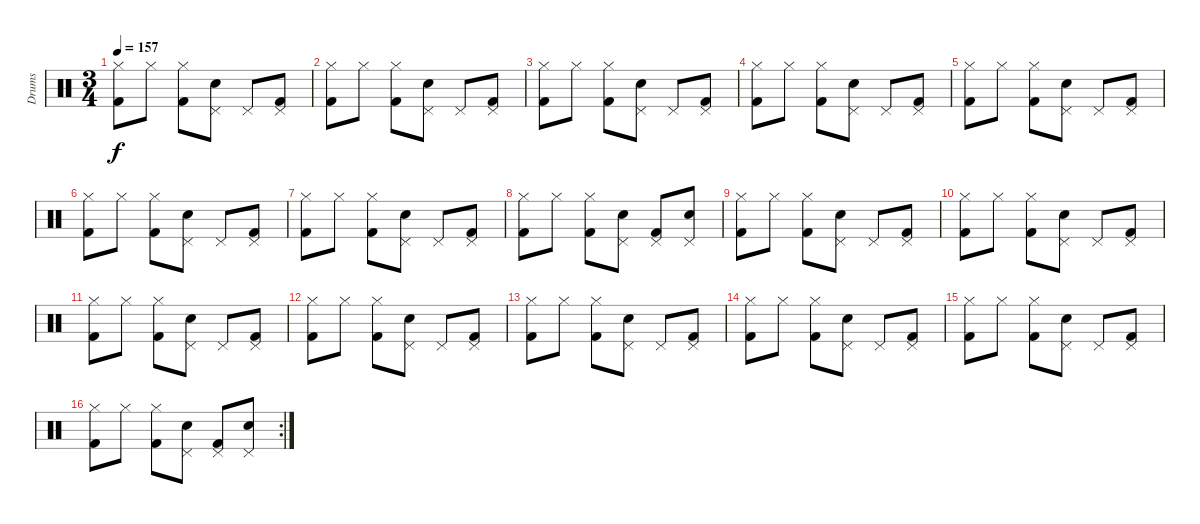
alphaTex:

\track ("Drums" "Drums") {instrument percussion}
\staff {score}
\articulation defaults
\ts (3 4)
\tempo 157
\clef neutral
\ks c
("Hi-Hat (closed)" "Kick (hit) 2").8{dy f} "Hi-Hat (closed)".8 ("Hi-Hat (closed)" "Kick (hit) 2").8 ("Pedal Hi-Hat (hit)" "Electric Snare (hit)").8 "Pedal Hi-Hat (hit)".8 ("Pedal Hi-Hat (hit)" "Kick (hit) 2").8 |
("Hi-Hat (closed)" "Kick (hit) 2").8 "Hi-Hat (closed)".8 ("Hi-Hat (closed)" "Kick (hit) 2").8 ("Pedal Hi-Hat (hit)" "Electric Snare (hit)").8 "Pedal Hi-Hat (hit)".8 ("Pedal Hi-Hat (hit)" "Kick (hit) 2").8 |
("Hi-Hat (closed)" "Kick (hit) 2").8 "Hi-Hat (closed)".8 ("Hi-Hat (closed)" "Kick (hit) 2").8 ("Pedal Hi-Hat (hit)" "Electric Snare (hit)").8 "Pedal Hi-Hat (hit)".8 ("Pedal Hi-Hat (hit)" "Kick (hit) 2").8 |
("Hi-Hat (closed)" "Kick (hit) 2").8 "Hi-Hat (closed)".8 ("Hi-Hat (closed)" "Kick (hit) 2").8 ("Pedal Hi-Hat (hit)" "Electric Snare (hit)").8 "Pedal Hi-Hat (hit)".8 ("Pedal Hi-Hat (hit)" "Kick (hit) 2").8 |
("Hi-Hat (closed)" "Kick (hit) 2").8 "Hi-Hat (closed)".8 ("Hi-Hat (closed)" "Kick (hit) 2").8 ("Pedal Hi-Hat (hit)" "Electric Snare (hit)").8 "Pedal Hi-Hat (hit)".8 ("Pedal Hi-Hat (hit)" "Kick (hit) 2").8 |
("Hi-Hat (closed)" "Kick (hit) 2").8 "Hi-Hat (closed)".8 ("Hi-Hat (closed)" "Kick (hit) 2").8 ("Pedal Hi-Hat (hit)" "Electric Snare (hit)").8 "Pedal Hi-Hat (hit)".8 ("Pedal Hi-Hat (hit)" "Kick (hit) 2").8 |
("Hi-Hat (closed)" "Kick (hit) 2").8 "Hi-Hat (closed)".8 ("Hi-Hat (closed)" "Kick (hit) 2").8 ("Pedal Hi-Hat (hit)" "Electric Snare (hit)").8 "Pedal Hi-Hat (hit)".8 ("Pedal Hi-Hat (hit)" "Kick (hit) 2").8 |
("Hi-Hat (closed)" "Kick (hit) 2").8 "Hi-Hat (closed)".8 ("Hi-Hat (closed)" "Kick (hit) 2").8 ("Pedal Hi-Hat (hit)" "Electric Snare (hit)").8 ("Pedal Hi-Hat (hit)" "Kick (hit) 2").8 ("Pedal Hi-Hat (hit)" "Electric Snare (hit)").8 |
("Hi-Hat (closed)" "Kick (hit) 2").8 "Hi-Hat (closed)".8 ("Hi-Hat (closed)" "Kick (hit) 2").8 ("Pedal Hi-Hat (hit)" "Electric Snare (hit)").8 "Pedal Hi-Hat (hit)".8 ("Pedal Hi-Hat (hit)" "Kick (hit) 2").8 |
("Hi-Hat (closed)" "Kick (hit) 2").8 "Hi-Hat (closed)".8 ("Hi-Hat (closed)" "Kick (hit) 2").8 ("Pedal Hi-Hat (hit)" "Electric Snare (hit)").8 "Pedal Hi-Hat (hit)".8 ("Pedal Hi-Hat (hit)" "Kick (hit) 2").8 |
("Hi-Hat (closed)" "Kick (hit) 2").8 "Hi-Hat (closed)".8 ("Hi-Hat (closed)" "Kick (hit) 2").8 ("Pedal Hi-Hat (hit)" "Electric Snare (hit)").8 "Pedal Hi-Hat (hit)".8 ("Pedal Hi-Hat (hit)" "Kick (hit) 2").8 |
("Hi-Hat (closed)" "Kick (hit) 2").8 "Hi-Hat (closed)".8 ("Hi-Hat (closed)" "Kick (hit) 2").8 ("Pedal Hi-Hat (hit)" "Electric Snare (hit)").8 "Pedal Hi-Hat (hit)".8 ("Pedal Hi-Hat (hit)" "Kick (hit) 2").8 |
("Hi-Hat (closed)" "Kick (hit) 2").8 "Hi-Hat (closed)".8 ("Hi-Hat (closed)" "Kick (hit) 2").8 ("Pedal Hi-Hat (hit)" "Electric Snare (hit)").8 "Pedal Hi-Hat (hit)".8 ("Pedal Hi-Hat (hit)" "Kick (hit) 2").8 |
("Hi-Hat (closed)" "Kick (hit) 2").8 "Hi-Hat (closed)".8 ("Hi-Hat (closed)" "Kick (hit) 2").8 ("Pedal Hi-Hat (hit)" "Electric Snare (hit)").8 "Pedal Hi-Hat (hit)".8 ("Pedal Hi-Hat (hit)" "Kick (hit) 2").8 |
("Hi-Hat (closed)" "Kick (hit) 2").8 "Hi-Hat (closed)".8 ("Hi-Hat (closed)" "Kick (hit) 2").8 ("Pedal Hi-Hat (hit)" "Electric Snare (hit)").8 "Pedal Hi-Hat (hit)".8 ("Pedal Hi-Hat (hit)" "Kick (hit) 2").8 |
\rc 2
("Hi-Hat (closed)" "Kick (hit) 2").8 "Hi-Hat (closed)".8 ("Hi-Hat (closed)" "Kick (hit) 2").8 ("Pedal Hi-Hat (hit)" "Electric Snare (hit)").8 ("Pedal Hi-Hat (hit)" "Kick (hit) 2").8 ("Pedal Hi-Hat (hit)" "Electric Snare (hit)").8
